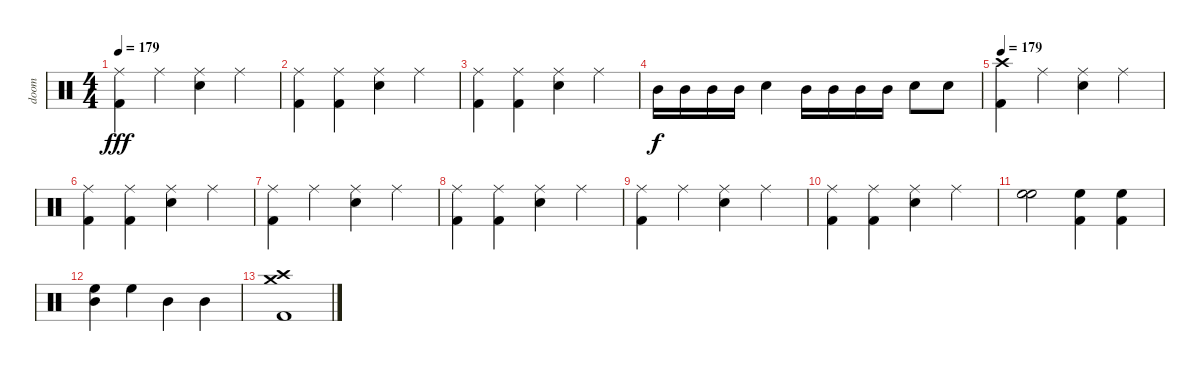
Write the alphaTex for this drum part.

\track ("doom" "doom") {instrument percussion}
\staff {score}
\articulation defaults
\ts (4 4)
\tempo 179
\clef neutral
\ks c
("Ride (middle)" "Kick (hit) 2").4{dy fff} "Ride (middle)".4 ("Ride (middle)" "Snare (hit) 2").4 "Ride (middle)".4 |
("Ride (middle)" "Kick (hit) 2").4 ("Ride (middle)" "Kick (hit) 2").4 ("Ride (middle)" "Snare (hit) 2").4 "Ride (middle)".4 |
("Ride (middle)" "Kick (hit) 2").4 ("Ride (middle)" "Kick (hit) 2").4 ("Ride (middle)" "Snare (hit) 2").4 "Ride (middle)".4 |
"Mid Tom (hit)".16{dy f} "Mid Tom (hit)".16 "Mid Tom (hit)".16 "Mid Tom (hit)".16 "Snare (hit) 2".4 "Mid Tom (hit)".16 "Mid Tom (hit)".16 "Mid Tom (hit)".16 "Mid Tom (hit)".16 "Snare (hit) 2".8 "Snare (hit) 2".8 |
\tempo 179
("Crash high (hit)" "Kick (hit) 2").4 "Ride (middle)".4 ("Ride (middle)" "Snare (hit) 2").4 "Ride (middle)".4 |
("Ride (middle)" "Kick (hit) 2").4 ("Ride (middle)" "Kick (hit) 2").4 ("Ride (middle)" "Snare (hit) 2").4 "Ride (middle)".4 |
("Ride (middle)" "Kick (hit) 2").4 "Ride (middle)".4 ("Ride (middle)" "Snare (hit) 2").4 "Ride (middle)".4 |
("Ride (middle)" "Kick (hit) 2").4 ("Ride (middle)" "Kick (hit) 2").4 ("Ride (middle)" "Snare (hit) 2").4 "Ride (middle)".4 |
("Ride (middle)" "Kick (hit) 2").4 "Ride (middle)".4 ("Ride (middle)" "Snare (hit) 2").4 "Ride (middle)".4 |
("Ride (middle)" "Kick (hit) 2").4 ("Ride (middle)" "Kick (hit) 2").4 ("Ride (middle)" "Snare (hit) 2").4 "Ride (middle)".4 |
("High Floor Tom (hit)" "High Floor Tom (hit)").2 ("Kick (hit) 2" "High Floor Tom (hit)").4 ("Kick (hit) 2" "High Floor Tom (hit)").4 |
("Mid Tom (hit)" "High Floor Tom (hit)").4 "High Floor Tom (hit)".4 "Mid Tom (hit)".4 "Mid Tom (hit)".4 |
("Crash medium (hit)" "Crash high (hit)" "Kick (hit) 2").1
